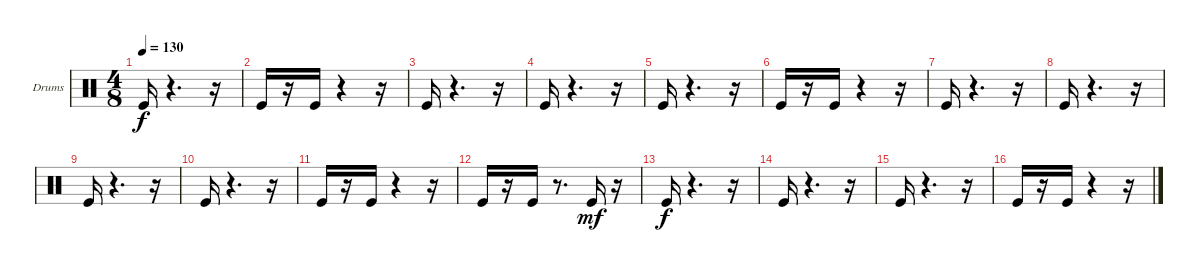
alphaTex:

\bracketExtendMode groupsimilarinstruments
\firstSystemTrackNameOrientation horizontal
\otherSystemsTrackNameOrientation horizontal
\track ("Ударные" "Drums") {instrument percussion}
\staff {score}
\articulation defaults
\ts (4 8)
\tempo 130
\clef neutral
\ks c "Kick (hit)".16{dy f}
r.4{d} r.16 |
"Kick (hit)".16 r.16 "Kick (hit)".16 r.4 r.16 |
"Kick (hit)".16 r.4{d} r.16 |
"Kick (hit)".16 r.4{d} r.16 |
"Kick (hit)".16 r.4{d} r.16 |
"Kick (hit)".16 r.16 "Kick (hit)".16 r.4 r.16 |
"Kick (hit)".16 r.4{d} r.16 |
"Kick (hit)".16 r.4{d} r.16 |
"Kick (hit)".16 r.4{d} r.16 |
"Kick (hit)".16 r.4{d} r.16 |
"Kick (hit)".16 r.16 "Kick (hit)".16 r.4 r.16 |
"Kick (hit)".16 r.16 "Kick (hit)".16 r.8{d} "Kick (hit)".16{dy mf} r.16 |
"Kick (hit)".16{dy f} r.4{d} r.16 |
"Kick (hit)".16 r.4{d} r.16 |
"Kick (hit)".16 r.4{d} r.16 |
"Kick (hit)".16 r.16 "Kick (hit)".16 r.4 r.16
